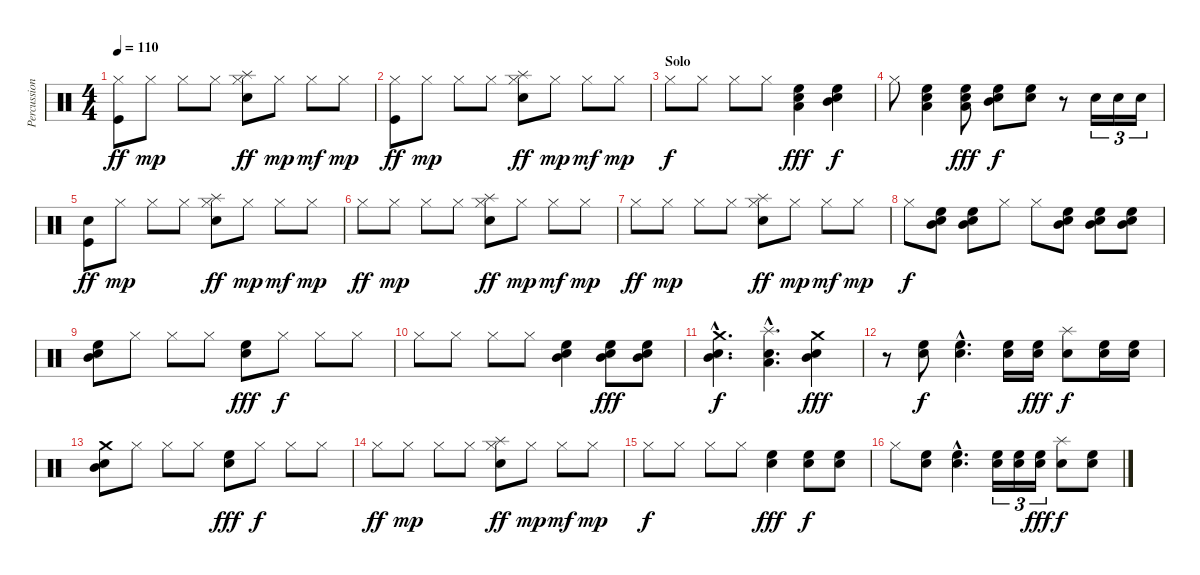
\track ("Percussions" "Percussion") {instrument percussion}
\staff {score}
\articulation defaults
\ts (4 4)
\tempo 110
\clef neutral
\ks c
("Kick (hit)" "Hi-Hat (closed)").8{dy ff} "Hi-Hat (closed)".8{dy mp} "Hi-Hat (closed)".8 "Hi-Hat (closed)".8 ("Snare (hit) 2" "Splash (hit)" "Hi-Hat (closed)").8{dy ff} "Hi-Hat (closed)".8{dy mp} "Hi-Hat (closed)".8{dy mf} "Hi-Hat (closed)".8{dy mp} |
("Kick (hit)" "Hi-Hat (closed)").8{dy ff} "Hi-Hat (closed)".8{dy mp} "Hi-Hat (closed)".8 "Hi-Hat (closed)".8 ("Snare (hit) 2" "Splash (hit)" "Hi-Hat (closed)").8{dy ff} "Hi-Hat (closed)".8{dy mp} "Hi-Hat (closed)".8{dy mf} "Hi-Hat (closed)".8{dy mp} |
\section ("" "Solo")
"Hi-Hat (closed)".8{dy f} "Hi-Hat (closed)".8 "Hi-Hat (closed)".8 "Hi-Hat (closed)".8 ("Snare (hit) 2" "High Floor Tom (hit)" "Low Floor Tom (hit)").4{dy fff} ("Snare (hit) 2" "High Floor Tom (hit)" "Mid Tom (hit)").4{dy f} |
"Hi-Hat (closed)".8 ("Snare (hit) 2" "High Floor Tom (hit)" "Low Floor Tom (hit)").4 ("Snare (hit) 2" "High Floor Tom (hit)" "Low Floor Tom (hit)").8{dy fff} ("Snare (hit) 2" "High Floor Tom (hit)" "Mid Tom (hit)").8{dy f} ("Snare (hit) 2" "High Floor Tom (hit)").8 r.8 "Snare (hit) 2".16{tu (3 2)} "Snare (hit) 2".16{tu (3 2)} "Snare (hit) 2".16{tu (3 2)} |
("Kick (hit)" "Snare (hit) 2").8{dy ff} "Hi-Hat (closed)".8{dy mp} "Hi-Hat (closed)".8 "Hi-Hat (closed)".8 ("Snare (hit) 2" "Splash (hit)" "Hi-Hat (closed)").8{dy ff} "Hi-Hat (closed)".8{dy mp} "Hi-Hat (closed)".8{dy mf} "Hi-Hat (closed)".8{dy mp} |
"Hi-Hat (closed)".8{dy ff} "Hi-Hat (closed)".8{dy mp} "Hi-Hat (closed)".8 "Hi-Hat (closed)".8 ("Snare (hit) 2" "Splash (hit)" "Hi-Hat (closed)").8{dy ff} "Hi-Hat (closed)".8{dy mp} "Hi-Hat (closed)".8{dy mf} "Hi-Hat (closed)".8{dy mp} |
"Hi-Hat (closed)".8{dy ff} "Hi-Hat (closed)".8{dy mp} "Hi-Hat (closed)".8 "Hi-Hat (closed)".8 ("Snare (hit) 2" "Splash (hit)" "Hi-Hat (closed)").8{dy ff} "Hi-Hat (closed)".8{dy mp} "Hi-Hat (closed)".8{dy mf} "Hi-Hat (closed)".8{dy mp} |
"Hi-Hat (closed)".8{dy f} ("Snare (hit) 2" "High Floor Tom (hit)" "Mid Tom (hit)").8 ("Snare (hit) 2" "High Floor Tom (hit)" "Mid Tom (hit)").8 "Hi-Hat (closed)".8 "Hi-Hat (closed)".8 ("Snare (hit) 2" "High Floor Tom (hit)" "Mid Tom (hit)").8 ("Snare (hit) 2" "High Floor Tom (hit)" "Mid Tom (hit)").8 ("Snare (hit) 2" "High Floor Tom (hit)" "Mid Tom (hit)").8 |
("Snare (hit) 2" "High Floor Tom (hit)" "Mid Tom (hit)").8 "Hi-Hat (closed)".8 "Hi-Hat (closed)".8 "Hi-Hat (closed)".8 ("Snare (hit) 2" "High Floor Tom (hit)").8{dy fff} "Hi-Hat (closed)".8{dy f} "Hi-Hat (closed)".8 "Hi-Hat (closed)".8 |
"Hi-Hat (closed)".8 "Hi-Hat (closed)".8 "Hi-Hat (closed)".8 "Hi-Hat (closed)".8 ("Snare (hit) 2" "High Floor Tom (hit)" "Mid Tom (hit)").4 ("Snare (hit) 2" "High Floor Tom (hit)" "Mid Tom (hit)").8{dy fff} ("Snare (hit) 2" "High Floor Tom (hit)" "Mid Tom (hit)").8 |
("Snare (hit) 2"{hac} "Crash medium (hit)"{hac} "Mid Tom (hit)"{hac}).4{d dy f balance 2} ("Snare (hit) 2"{hac} "Splash (hit)"{hac} "Low Floor Tom (hit)"{hac}).4{d balance 14} ("Snare (hit) 2" "Crash medium (hit)" "Mid Tom (hit)").4{dy fff balance 2} |
r.8{balance 8} ("Snare (hit) 2" "High Floor Tom (hit)").8{dy f} ("Snare (hit) 2"{hac} "High Floor Tom (hit)"{hac}).4{d} ("Snare (hit) 2" "High Floor Tom (hit)").16 ("Snare (hit) 2" "High Floor Tom (hit)").16{dy fff} ("Snare (hit) 2" "Splash (hit)").8{dy f} ("Snare (hit) 2" "High Floor Tom (hit)").16 ("Snare (hit) 2" "High Floor Tom (hit)").16 |
("Snare (hit) 2" "Crash medium (hit)" "Mid Tom (hit)").8 "Hi-Hat (closed)".8 "Hi-Hat (closed)".8 "Hi-Hat (closed)".8 ("Snare (hit) 2" "High Floor Tom (hit)").8{dy fff} "Hi-Hat (closed)".8{dy f} "Hi-Hat (closed)".8 "Hi-Hat (closed)".8 |
"Hi-Hat (closed)".8{dy ff} "Hi-Hat (closed)".8{dy mp} "Hi-Hat (closed)".8 "Hi-Hat (closed)".8 ("Snare (hit) 2" "Splash (hit)" "Hi-Hat (closed)").8{dy ff} "Hi-Hat (closed)".8{dy mp} "Hi-Hat (closed)".8{dy mf} "Hi-Hat (closed)".8{dy mp} |
"Hi-Hat (closed)".8{dy f} "Hi-Hat (closed)".8 "Hi-Hat (closed)".8 "Hi-Hat (closed)".8 ("Snare (hit) 2" "High Floor Tom (hit)").4{dy fff} ("Snare (hit) 2" "High Floor Tom (hit)").8{dy f} ("Snare (hit) 2" "High Floor Tom (hit)").8 |
"Hi-Hat (closed)".8 ("Snare (hit) 2" "High Floor Tom (hit)").8 ("Snare (hit) 2"{hac} "High Floor Tom (hit)"{hac}).4{d} ("Snare (hit) 2" "High Floor Tom (hit)").16{tu (3 2)} ("Snare (hit) 2" "High Floor Tom (hit)").16{tu (3 2)} ("Snare (hit) 2" "High Floor Tom (hit)").16{tu (3 2) dy fff} ("Snare (hit) 2" "Splash (hit)").8{dy f} ("Snare (hit) 2" "High Floor Tom (hit)").8
